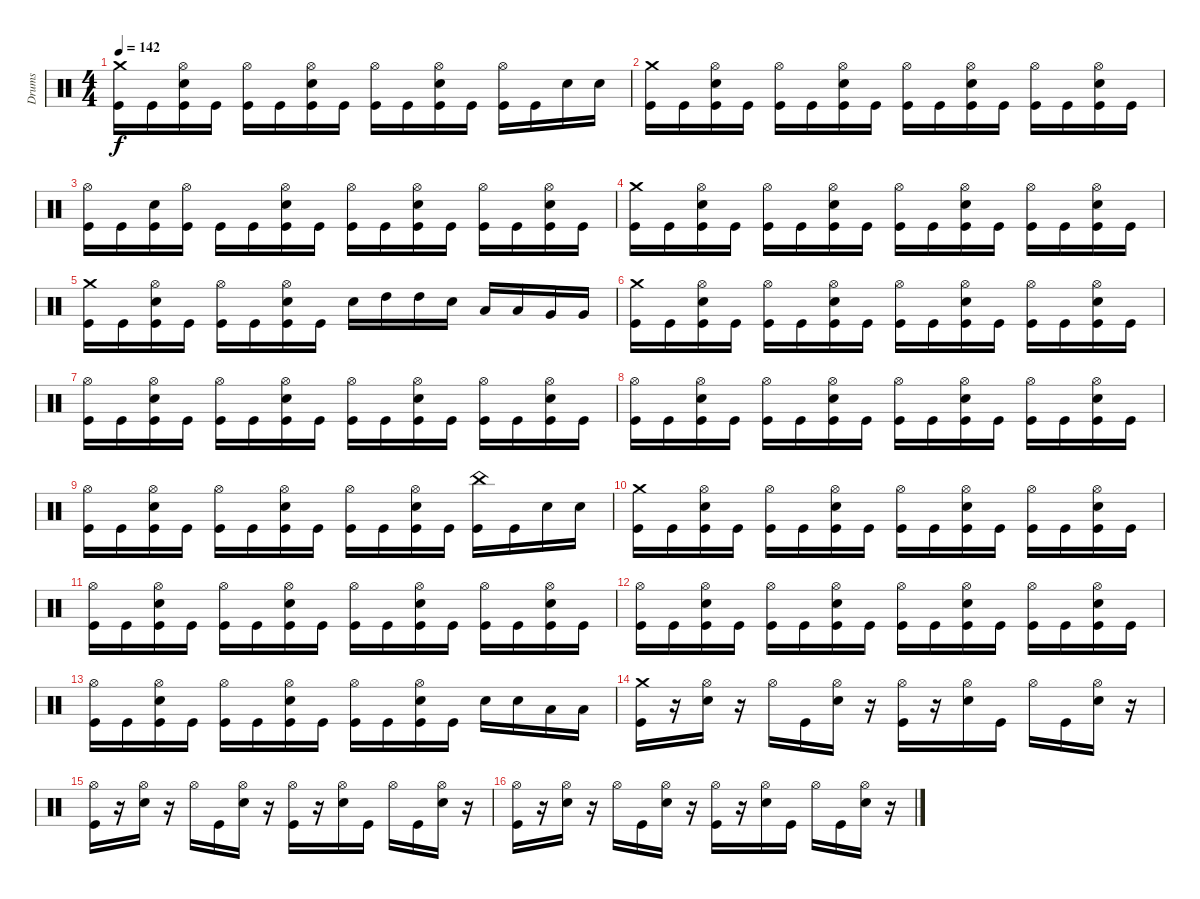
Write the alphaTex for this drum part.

\track ("Drums" "Drums") {instrument percussion}
\staff {score}
\articulation defaults
\ts (4 4)
\tempo 142
\clef neutral
\ks c
("Crash medium (hit)" "Kick (hit)").16{dy f} "Kick (hit)".16 ("Electric Snare (hit)" "Hi-Hat (open)" "Kick (hit)").16 "Kick (hit)".16 ("Hi-Hat (open)" "Kick (hit)").16 "Kick (hit)".16 ("Electric Snare (hit)" "Hi-Hat (open)" "Kick (hit)").16 "Kick (hit)".16 ("Hi-Hat (open)" "Kick (hit)").16 "Kick (hit)".16 ("Electric Snare (hit)" "Hi-Hat (open)" "Kick (hit)").16 "Kick (hit)".16 ("Hi-Hat (open)" "Kick (hit)").16 "Kick (hit)".16 "Electric Snare (hit)".16 "Electric Snare (hit)".16 |
("Crash medium (hit)" "Kick (hit)").16 "Kick (hit)".16 ("Electric Snare (hit)" "Hi-Hat (open)" "Kick (hit)").16 "Kick (hit)".16 ("Hi-Hat (open)" "Kick (hit)").16 "Kick (hit)".16 ("Electric Snare (hit)" "Hi-Hat (open)" "Kick (hit)").16 "Kick (hit)".16 ("Hi-Hat (open)" "Kick (hit)").16 "Kick (hit)".16 ("Electric Snare (hit)" "Hi-Hat (open)" "Kick (hit)").16 "Kick (hit)".16 ("Hi-Hat (open)" "Kick (hit)").16 "Kick (hit)".16 ("Electric Snare (hit)" "Hi-Hat (open)" "Kick (hit)").16 "Kick (hit)".16 |
("Hi-Hat (open)" "Kick (hit)").16 "Kick (hit)".16 ("Electric Snare (hit)" "Kick (hit)").16 ("Hi-Hat (open)" "Kick (hit)").16 "Kick (hit)".16 "Kick (hit)".16 ("Electric Snare (hit)" "Hi-Hat (open)" "Kick (hit)").16 "Kick (hit)".16 ("Hi-Hat (open)" "Kick (hit)").16 "Kick (hit)".16 ("Electric Snare (hit)" "Hi-Hat (open)" "Kick (hit)").16 "Kick (hit)".16 ("Hi-Hat (open)" "Kick (hit)").16 "Kick (hit)".16 ("Electric Snare (hit)" "Hi-Hat (open)" "Kick (hit)").16 "Kick (hit)".16 |
("Crash medium (hit)" "Kick (hit)").16 "Kick (hit)".16 ("Electric Snare (hit)" "Hi-Hat (open)" "Kick (hit)").16 "Kick (hit)".16 ("Hi-Hat (open)" "Kick (hit)").16 "Kick (hit)".16 ("Electric Snare (hit)" "Hi-Hat (open)" "Kick (hit)").16 "Kick (hit)".16 ("Hi-Hat (open)" "Kick (hit)").16 "Kick (hit)".16 ("Electric Snare (hit)" "Hi-Hat (open)" "Kick (hit)").16 "Kick (hit)".16 ("Hi-Hat (open)" "Kick (hit)").16 "Kick (hit)".16 ("Electric Snare (hit)" "Hi-Hat (open)" "Kick (hit)").16 "Kick (hit)".16 |
("Crash medium (hit)" "Kick (hit)").16 "Kick (hit)".16 ("Electric Snare (hit)" "Hi-Hat (open)" "Kick (hit)").16 "Kick (hit)".16 ("Hi-Hat (open)" "Kick (hit)").16 "Kick (hit)".16 ("Electric Snare (hit)" "Hi-Hat (open)" "Kick (hit)").16 "Kick (hit)".16 "Electric Snare (hit)".16 "High Tom (hit)".16 "High Tom (hit)".16 "Electric Snare (hit)".16 "Low Tom (hit)".16 "Low Tom (hit)".16 "Very Low Tom (hit)".16 "Very Low Tom (hit)".16 |
("Crash medium (hit)" "Kick (hit)").16 "Kick (hit)".16 ("Electric Snare (hit)" "Hi-Hat (open)" "Kick (hit)").16 "Kick (hit)".16 ("Hi-Hat (open)" "Kick (hit)").16 "Kick (hit)".16 ("Electric Snare (hit)" "Hi-Hat (open)" "Kick (hit)").16 "Kick (hit)".16 ("Hi-Hat (open)" "Kick (hit)").16 "Kick (hit)".16 ("Electric Snare (hit)" "Hi-Hat (open)" "Kick (hit)").16 "Kick (hit)".16 ("Hi-Hat (open)" "Kick (hit)").16 "Kick (hit)".16 ("Electric Snare (hit)" "Hi-Hat (open)" "Kick (hit)").16 "Kick (hit)".16 |
("Hi-Hat (open)" "Kick (hit)").16 "Kick (hit)".16 ("Electric Snare (hit)" "Hi-Hat (open)" "Kick (hit)").16 "Kick (hit)".16 ("Hi-Hat (open)" "Kick (hit)").16 "Kick (hit)".16 ("Electric Snare (hit)" "Hi-Hat (open)" "Kick (hit)").16 "Kick (hit)".16 ("Hi-Hat (open)" "Kick (hit)").16 "Kick (hit)".16 ("Electric Snare (hit)" "Hi-Hat (open)" "Kick (hit)").16 "Kick (hit)".16 ("Hi-Hat (open)" "Kick (hit)").16 "Kick (hit)".16 ("Electric Snare (hit)" "Hi-Hat (open)" "Kick (hit)").16 "Kick (hit)".16 |
("Hi-Hat (open)" "Kick (hit)").16 "Kick (hit)".16 ("Electric Snare (hit)" "Hi-Hat (open)" "Kick (hit)").16 "Kick (hit)".16 ("Hi-Hat (open)" "Kick (hit)").16 "Kick (hit)".16 ("Electric Snare (hit)" "Hi-Hat (open)" "Kick (hit)").16 "Kick (hit)".16 ("Hi-Hat (open)" "Kick (hit)").16 "Kick (hit)".16 ("Electric Snare (hit)" "Hi-Hat (open)" "Kick (hit)").16 "Kick (hit)".16 ("Hi-Hat (open)" "Kick (hit)").16 "Kick (hit)".16 ("Electric Snare (hit)" "Hi-Hat (open)" "Kick (hit)").16 "Kick (hit)".16 |
("Hi-Hat (open)" "Kick (hit)").16 "Kick (hit)".16 ("Electric Snare (hit)" "Hi-Hat (open)" "Kick (hit)").16 "Kick (hit)".16 ("Hi-Hat (open)" "Kick (hit)").16 "Kick (hit)".16 ("Electric Snare (hit)" "Hi-Hat (open)" "Kick (hit)").16 "Kick (hit)".16 ("Hi-Hat (open)" "Kick (hit)").16 "Kick (hit)".16 ("Electric Snare (hit)" "Hi-Hat (open)" "Kick (hit)").16 "Kick (hit)".16 ("China (hit)" "Kick (hit)").16 "Kick (hit)".16 "Electric Snare (hit)".16 "Electric Snare (hit)".16 |
("Crash medium (hit)" "Kick (hit)").16 "Kick (hit)".16 ("Electric Snare (hit)" "Hi-Hat (open)" "Kick (hit)").16 "Kick (hit)".16 ("Hi-Hat (open)" "Kick (hit)").16 "Kick (hit)".16 ("Electric Snare (hit)" "Hi-Hat (open)" "Kick (hit)").16 "Kick (hit)".16 ("Hi-Hat (open)" "Kick (hit)").16 "Kick (hit)".16 ("Electric Snare (hit)" "Hi-Hat (open)" "Kick (hit)").16 "Kick (hit)".16 ("Hi-Hat (open)" "Kick (hit)").16 "Kick (hit)".16 ("Electric Snare (hit)" "Hi-Hat (open)" "Kick (hit)").16 "Kick (hit)".16 |
("Hi-Hat (open)" "Kick (hit)").16 "Kick (hit)".16 ("Electric Snare (hit)" "Hi-Hat (open)" "Kick (hit)").16 "Kick (hit)".16 ("Hi-Hat (open)" "Kick (hit)").16 "Kick (hit)".16 ("Electric Snare (hit)" "Hi-Hat (open)" "Kick (hit)").16 "Kick (hit)".16 ("Hi-Hat (open)" "Kick (hit)").16 "Kick (hit)".16 ("Electric Snare (hit)" "Hi-Hat (open)" "Kick (hit)").16 "Kick (hit)".16 ("Hi-Hat (open)" "Kick (hit)").16 "Kick (hit)".16 ("Electric Snare (hit)" "Hi-Hat (open)" "Kick (hit)").16 "Kick (hit)".16 |
("Hi-Hat (open)" "Kick (hit)").16 "Kick (hit)".16 ("Electric Snare (hit)" "Hi-Hat (open)" "Kick (hit)").16 "Kick (hit)".16 ("Hi-Hat (open)" "Kick (hit)").16 "Kick (hit)".16 ("Electric Snare (hit)" "Hi-Hat (open)" "Kick (hit)").16 "Kick (hit)".16 ("Hi-Hat (open)" "Kick (hit)").16 "Kick (hit)".16 ("Electric Snare (hit)" "Hi-Hat (open)" "Kick (hit)").16 "Kick (hit)".16 ("Hi-Hat (open)" "Kick (hit)").16 "Kick (hit)".16 ("Electric Snare (hit)" "Hi-Hat (open)" "Kick (hit)").16 "Kick (hit)".16 |
("Hi-Hat (open)" "Kick (hit)").16 "Kick (hit)".16 ("Electric Snare (hit)" "Hi-Hat (open)" "Kick (hit)").16 "Kick (hit)".16 ("Hi-Hat (open)" "Kick (hit)").16 "Kick (hit)".16 ("Electric Snare (hit)" "Hi-Hat (open)" "Kick (hit)").16 "Kick (hit)".16 ("Hi-Hat (open)" "Kick (hit)").16 "Kick (hit)".16 ("Electric Snare (hit)" "Hi-Hat (open)" "Kick (hit)").16 "Kick (hit)".16 "Electric Snare (hit)".16 "Electric Snare (hit)".16 "Low Tom (hit)".16 "Low Tom (hit)".16 |
("Kick (hit)" "Crash medium (hit)").16 r.16 ("Electric Snare (hit)" "Hi-Hat (open)").16 r.16 "Hi-Hat (open)".16 "Kick (hit)".16 ("Electric Snare (hit)" "Hi-Hat (open)").16 r.16 ("Kick (hit)" "Hi-Hat (open)").16 r.16 ("Electric Snare (hit)" "Hi-Hat (open)").16 "Kick (hit)".16 "Hi-Hat (open)".16 "Kick (hit)".16 ("Electric Snare (hit)" "Hi-Hat (open)").16 r.16 |
("Hi-Hat (open)" "Kick (hit)").16 r.16 ("Hi-Hat (open)" "Electric Snare (hit)").16 r.16 "Hi-Hat (open)".16 "Kick (hit)".16 ("Hi-Hat (open)" "Electric Snare (hit)").16 r.16 ("Kick (hit)" "Hi-Hat (open)").16 r.16 ("Hi-Hat (open)" "Electric Snare (hit)").16 "Kick (hit)".16 "Hi-Hat (open)".16 "Kick (hit)".16 ("Hi-Hat (open)" "Electric Snare (hit)").16 r.16 |
("Kick (hit)" "Hi-Hat (open)").16 r.16 ("Electric Snare (hit)" "Hi-Hat (open)").16 r.16 "Hi-Hat (open)".16 "Kick (hit)".16 ("Electric Snare (hit)" "Hi-Hat (open)").16 r.16 ("Kick (hit)" "Hi-Hat (open)").16 r.16 ("Electric Snare (hit)" "Hi-Hat (open)").16 "Kick (hit)".16 "Hi-Hat (open)".16 "Kick (hit)".16 ("Electric Snare (hit)" "Hi-Hat (open)").16 r.16
